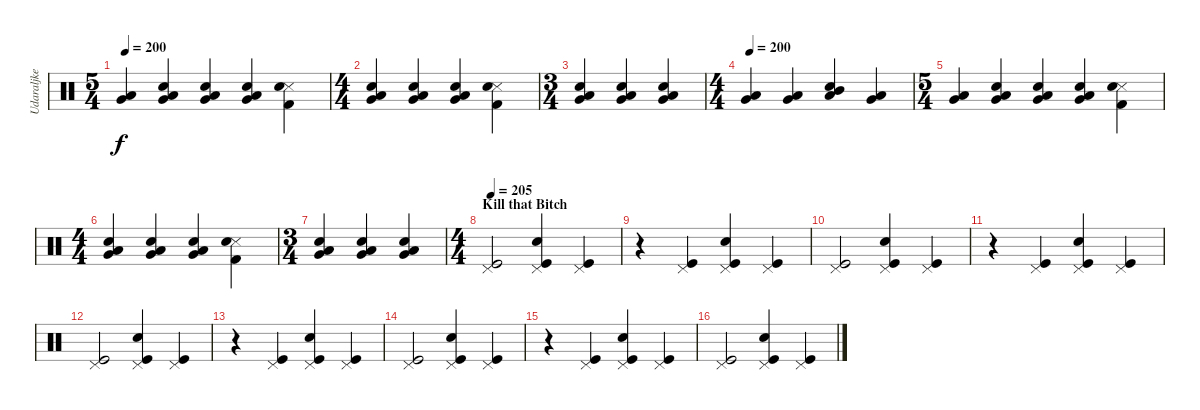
\track ("Udaraljke" "Udaraljke") {instrument percussion}
\staff {score}
\articulation defaults
\ts (5 4)
\tempo 200
\clef neutral
\ks c
("Very Low Tom (hit)" "Low Tom (hit)").4{dy f} ("Very Low Tom (hit)" "Low Floor Tom (hit)" "Snare (hit) 2").4 ("Very Low Tom (hit)" "Low Floor Tom (hit)" "Snare (hit) 2").4 ("Very Low Tom (hit)" "Low Floor Tom (hit)" "Snare (hit) 2").4 ("Kick (hit) 2" "Metronome (hit)" "Snare (hit) 2").4 |
\ts (4 4)
("Very Low Tom (hit)" "Low Floor Tom (hit)" "Snare (hit) 2").4 ("Very Low Tom (hit)" "Low Floor Tom (hit)" "Snare (hit) 2").4 ("Very Low Tom (hit)" "Low Floor Tom (hit)" "Snare (hit) 2").4 ("Kick (hit) 2" "Metronome (hit)" "Snare (hit) 2").4 |
\ts (3 4)
("Very Low Tom (hit)" "Low Floor Tom (hit)" "Snare (hit) 2").4 ("Very Low Tom (hit)" "Low Floor Tom (hit)" "Snare (hit) 2").4 ("Very Low Tom (hit)" "Low Floor Tom (hit)" "Snare (hit) 2").4 |
\ts (4 4)
\tempo 200
("Very Low Tom (hit)" "Low Tom (hit)").4{volume 10 balance 8} ("Very Low Tom (hit)" "Low Tom (hit)").4 ("Mid Tom (hit)" "Low Tom (hit)" "Snare (hit) 2").4 ("Very Low Tom (hit)" "Low Tom (hit)").4 |
\ts (5 4)
("Very Low Tom (hit)" "Low Tom (hit)").4 ("Very Low Tom (hit)" "Low Floor Tom (hit)" "Snare (hit) 2").4 ("Very Low Tom (hit)" "Low Floor Tom (hit)" "Snare (hit) 2").4 ("Very Low Tom (hit)" "Low Floor Tom (hit)" "Snare (hit) 2").4 ("Kick (hit) 2" "Metronome (hit)" "Snare (hit) 2").4 |
\ts (4 4)
("Very Low Tom (hit)" "Low Floor Tom (hit)" "Snare (hit) 2").4 ("Very Low Tom (hit)" "Low Floor Tom (hit)" "Snare (hit) 2").4 ("Very Low Tom (hit)" "Low Floor Tom (hit)" "Snare (hit) 2").4 ("Kick (hit) 2" "Metronome (hit)" "Snare (hit) 2").4 |
\ts (3 4)
("Very Low Tom (hit)" "Low Floor Tom (hit)" "Snare (hit) 2").4 ("Very Low Tom (hit)" "Low Floor Tom (hit)" "Snare (hit) 2").4 ("Very Low Tom (hit)" "Low Floor Tom (hit)" "Snare (hit) 2").4 |
\ts (4 4)
\section ("" "Kill that Bitch")
\tempo 215
\tempo 205
("Kick (hit)" "Pedal Hi-Hat (hit)").2 ("Kick (hit)" "Snare (hit) 2" "Pedal Hi-Hat (hit)").4 ("Kick (hit)" "Pedal Hi-Hat (hit)").4 |
r.4 ("Kick (hit)" "Pedal Hi-Hat (hit)").4 ("Kick (hit)" "Snare (hit) 2" "Pedal Hi-Hat (hit)").4 ("Kick (hit)" "Pedal Hi-Hat (hit)").4 |
("Kick (hit)" "Pedal Hi-Hat (hit)").2 ("Kick (hit)" "Snare (hit) 2" "Pedal Hi-Hat (hit)").4 ("Kick (hit)" "Pedal Hi-Hat (hit)").4 |
r.4 ("Kick (hit)" "Pedal Hi-Hat (hit)").4 ("Kick (hit)" "Snare (hit) 2" "Pedal Hi-Hat (hit)").4 ("Kick (hit)" "Pedal Hi-Hat (hit)").4 |
("Kick (hit)" "Pedal Hi-Hat (hit)").2 ("Kick (hit)" "Snare (hit) 2" "Pedal Hi-Hat (hit)").4 ("Kick (hit)" "Pedal Hi-Hat (hit)").4 |
r.4 ("Kick (hit)" "Pedal Hi-Hat (hit)").4 ("Kick (hit)" "Snare (hit) 2" "Pedal Hi-Hat (hit)").4 ("Kick (hit)" "Pedal Hi-Hat (hit)").4 |
("Kick (hit)" "Pedal Hi-Hat (hit)").2 ("Kick (hit)" "Snare (hit) 2" "Pedal Hi-Hat (hit)").4 ("Kick (hit)" "Pedal Hi-Hat (hit)").4 |
r.4 ("Kick (hit)" "Pedal Hi-Hat (hit)").4 ("Kick (hit)" "Snare (hit) 2" "Pedal Hi-Hat (hit)").4 ("Kick (hit)" "Pedal Hi-Hat (hit)").4 |
("Kick (hit)" "Pedal Hi-Hat (hit)").2 ("Kick (hit)" "Snare (hit) 2" "Pedal Hi-Hat (hit)").4 ("Kick (hit)" "Pedal Hi-Hat (hit)").4
